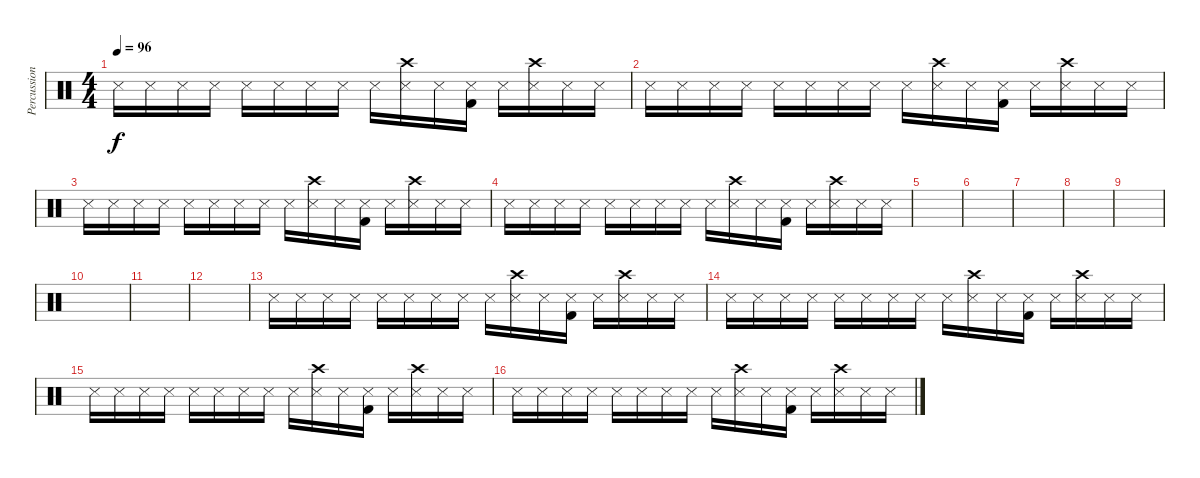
\track ("Percussion 3 diff" "Percussion") {instrument percussion}
\staff {score}
\articulation defaults
\ts (4 4)
\tempo 96
\clef neutral
\ks c "Snare (side stick) 3".16{dy f} "Snare (side stick) 3".16 "Snare (side stick) 3".16 "Snare (side stick) 3".16 "Snare (side stick) 3".16 "Snare (side stick) 3".16 "Snare (side stick) 3".16 "Snare (side stick) 3".16 "Snare (side stick) 3".16
("Snare (side stick) 3" "Crash high (hit)").16 "Snare (side stick) 3".16 ("Snare (side stick) 3" "Kick (hit) 2").16 "Snare (side stick) 3".16 ("Snare (side stick) 3" "Crash high (hit)").16 "Snare (side stick) 3".16 "Snare (side stick) 3".16 |
"Snare (side stick) 3".16 "Snare (side stick) 3".16 "Snare (side stick) 3".16 "Snare (side stick) 3".16 "Snare (side stick) 3".16 "Snare (side stick) 3".16 "Snare (side stick) 3".16 "Snare (side stick) 3".16 "Snare (side stick) 3".16 ("Snare (side stick) 3" "Crash high (hit)").16 "Snare (side stick) 3".16 ("Snare (side stick) 3" "Kick (hit) 2").16 "Snare (side stick) 3".16 ("Snare (side stick) 3" "Crash high (hit)").16 "Snare (side stick) 3".16 "Snare (side stick) 3".16 |
"Snare (side stick) 3".16 "Snare (side stick) 3".16 "Snare (side stick) 3".16 "Snare (side stick) 3".16 "Snare (side stick) 3".16 "Snare (side stick) 3".16 "Snare (side stick) 3".16 "Snare (side stick) 3".16 "Snare (side stick) 3".16 ("Snare (side stick) 3" "Crash high (hit)").16 "Snare (side stick) 3".16 ("Snare (side stick) 3" "Kick (hit) 2").16 "Snare (side stick) 3".16 ("Snare (side stick) 3" "Crash high (hit)").16 "Snare (side stick) 3".16 "Snare (side stick) 3".16 |
"Snare (side stick) 3".16 "Snare (side stick) 3".16 "Snare (side stick) 3".16 "Snare (side stick) 3".16 "Snare (side stick) 3".16 "Snare (side stick) 3".16 "Snare (side stick) 3".16 "Snare (side stick) 3".16 "Snare (side stick) 3".16 ("Snare (side stick) 3" "Crash high (hit)").16 "Snare (side stick) 3".16 ("Snare (side stick) 3" "Kick (hit) 2").16 "Snare (side stick) 3".16 ("Snare (side stick) 3" "Crash high (hit)").16 "Snare (side stick) 3".16 "Snare (side stick) 3".16 |
|
|
|
|
|
|
|
|
"Snare (side stick) 3".16 "Snare (side stick) 3".16 "Snare (side stick) 3".16 "Snare (side stick) 3".16 "Snare (side stick) 3".16 "Snare (side stick) 3".16 "Snare (side stick) 3".16 "Snare (side stick) 3".16 "Snare (side stick) 3".16 ("Snare (side stick) 3" "Crash high (hit)").16 "Snare (side stick) 3".16 ("Snare (side stick) 3" "Kick (hit) 2").16 "Snare (side stick) 3".16 ("Snare (side stick) 3" "Crash high (hit)").16 "Snare (side stick) 3".16 "Snare (side stick) 3".16 |
"Snare (side stick) 3".16 "Snare (side stick) 3".16 "Snare (side stick) 3".16 "Snare (side stick) 3".16 "Snare (side stick) 3".16 "Snare (side stick) 3".16 "Snare (side stick) 3".16 "Snare (side stick) 3".16 "Snare (side stick) 3".16 ("Snare (side stick) 3" "Crash high (hit)").16 "Snare (side stick) 3".16 ("Snare (side stick) 3" "Kick (hit) 2").16 "Snare (side stick) 3".16 ("Snare (side stick) 3" "Crash high (hit)").16 "Snare (side stick) 3".16 "Snare (side stick) 3".16 |
"Snare (side stick) 3".16 "Snare (side stick) 3".16 "Snare (side stick) 3".16 "Snare (side stick) 3".16 "Snare (side stick) 3".16 "Snare (side stick) 3".16 "Snare (side stick) 3".16 "Snare (side stick) 3".16 "Snare (side stick) 3".16 ("Snare (side stick) 3" "Crash high (hit)").16 "Snare (side stick) 3".16 ("Snare (side stick) 3" "Kick (hit) 2").16 "Snare (side stick) 3".16 ("Snare (side stick) 3" "Crash high (hit)").16 "Snare (side stick) 3".16 "Snare (side stick) 3".16 |
"Snare (side stick) 3".16 "Snare (side stick) 3".16 "Snare (side stick) 3".16 "Snare (side stick) 3".16 "Snare (side stick) 3".16 "Snare (side stick) 3".16 "Snare (side stick) 3".16 "Snare (side stick) 3".16 "Snare (side stick) 3".16 ("Snare (side stick) 3" "Crash high (hit)").16 "Snare (side stick) 3".16 ("Snare (side stick) 3" "Kick (hit) 2").16 "Snare (side stick) 3".16 ("Snare (side stick) 3" "Crash high (hit)").16 "Snare (side stick) 3".16 "Snare (side stick) 3".16
